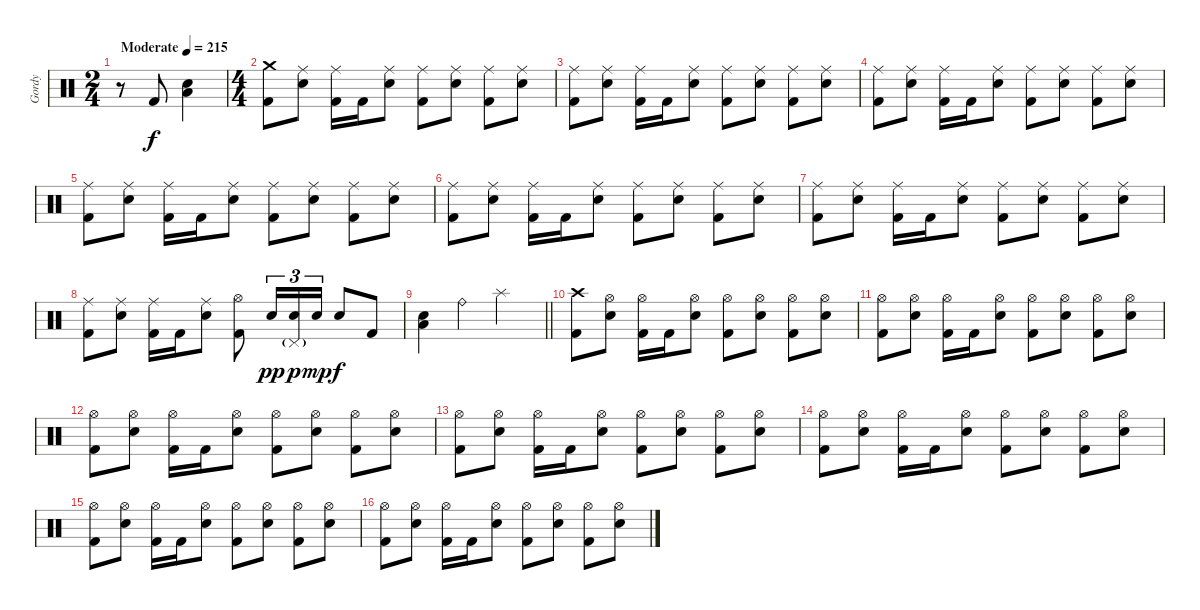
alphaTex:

\track ("Gordy" "Gordy") {instrument percussion}
\staff {score}
\articulation defaults
\ts (2 4)
\tempo (215 "Moderate")
\clef neutral
\ks c
r.8{dy f} "Kick (hit) 2".8 ("Electric Snare (hit)" "Low Floor Tom (hit)").4 |
\ts (4 4)
("Crash medium (hit)" "Kick (hit) 2").8 ("Ride (middle)" "Electric Snare (hit)").8 ("Ride (middle)" "Kick (hit) 2").16 "Kick (hit) 2".16 ("Ride (middle)" "Electric Snare (hit)").8 ("Ride (middle)" "Kick (hit) 2").8 ("Ride (middle)" "Electric Snare (hit)").8 ("Ride (middle)" "Kick (hit) 2").8 ("Ride (middle)" "Electric Snare (hit)").8 |
("Ride (middle)" "Kick (hit) 2").8 ("Ride (middle)" "Electric Snare (hit)").8 ("Ride (middle)" "Kick (hit) 2").16 "Kick (hit) 2".16 ("Ride (middle)" "Electric Snare (hit)").8 ("Ride (middle)" "Kick (hit) 2").8 ("Ride (middle)" "Electric Snare (hit)").8 ("Ride (middle)" "Kick (hit) 2").8 ("Ride (middle)" "Electric Snare (hit)").8 |
("Ride (middle)" "Kick (hit) 2").8 ("Ride (middle)" "Electric Snare (hit)").8 ("Ride (middle)" "Kick (hit) 2").16 "Kick (hit) 2".16 ("Ride (middle)" "Electric Snare (hit)").8 ("Ride (middle)" "Kick (hit) 2").8 ("Ride (middle)" "Electric Snare (hit)").8 ("Ride (middle)" "Kick (hit) 2").8 ("Ride (middle)" "Electric Snare (hit)").8 |
("Ride (middle)" "Kick (hit) 2").8 ("Ride (middle)" "Electric Snare (hit)").8 ("Ride (middle)" "Kick (hit) 2").16 "Kick (hit) 2".16 ("Ride (middle)" "Electric Snare (hit)").8 ("Ride (middle)" "Kick (hit) 2").8 ("Ride (middle)" "Electric Snare (hit)").8 ("Ride (middle)" "Kick (hit) 2").8 ("Ride (middle)" "Electric Snare (hit)").8 |
("Ride (middle)" "Kick (hit) 2").8 ("Ride (middle)" "Electric Snare (hit)").8 ("Ride (middle)" "Kick (hit) 2").16 "Kick (hit) 2".16 ("Ride (middle)" "Electric Snare (hit)").8 ("Ride (middle)" "Kick (hit) 2").8 ("Ride (middle)" "Electric Snare (hit)").8 ("Ride (middle)" "Kick (hit) 2").8 ("Ride (middle)" "Electric Snare (hit)").8 |
("Ride (middle)" "Kick (hit) 2").8 ("Ride (middle)" "Electric Snare (hit)").8 ("Ride (middle)" "Kick (hit) 2").16 "Kick (hit) 2".16 ("Ride (middle)" "Electric Snare (hit)").8 ("Ride (middle)" "Kick (hit) 2").8 ("Ride (middle)" "Electric Snare (hit)").8 ("Ride (middle)" "Kick (hit) 2").8 ("Ride (middle)" "Electric Snare (hit)").8 |
("Ride (middle)" "Kick (hit) 2").8 ("Ride (middle)" "Electric Snare (hit)").8 ("Ride (middle)" "Kick (hit) 2").16 "Kick (hit) 2".16 ("Ride (middle)" "Electric Snare (hit)").8 ("Hi-Hat (open)" "Kick (hit) 2").8 "Electric Snare (hit)".16{tu (3 2) dy pp} ("Pedal Hi-Hat (hit)"{g} "Electric Snare (hit)").16{tu (3 2) dy p} "Electric Snare (hit)".16{tu (3 2) dy mp} "Electric Snare (hit)".8{dy f} "Kick (hit) 2".8 |
\barLineRight lightlight
("Electric Snare (hit)" "Low Floor Tom (hit)").4 "Ride (bell)".4 "Splash (hit)".2 |
\section ("" "")
("Crash high (hit)" "Kick (hit) 2").8 ("Hi-Hat (open)" "Electric Snare (hit)").8 ("Hi-Hat (open)" "Kick (hit) 2").16 "Kick (hit) 2".16 ("Hi-Hat (open)" "Electric Snare (hit)").8 ("Hi-Hat (open)" "Kick (hit) 2").8 ("Hi-Hat (open)" "Electric Snare (hit)").8 ("Hi-Hat (open)" "Kick (hit) 2").8 ("Hi-Hat (open)" "Electric Snare (hit)").8 |
("Hi-Hat (open)" "Kick (hit) 2").8 ("Hi-Hat (open)" "Electric Snare (hit)").8 ("Hi-Hat (open)" "Kick (hit) 2").16 "Kick (hit) 2".16 ("Hi-Hat (open)" "Electric Snare (hit)").8 ("Hi-Hat (open)" "Kick (hit) 2").8 ("Hi-Hat (open)" "Electric Snare (hit)").8 ("Hi-Hat (open)" "Kick (hit) 2").8 ("Hi-Hat (open)" "Electric Snare (hit)").8 |
("Hi-Hat (open)" "Kick (hit) 2").8 ("Hi-Hat (open)" "Electric Snare (hit)").8 ("Hi-Hat (open)" "Kick (hit) 2").16 "Kick (hit) 2".16 ("Hi-Hat (open)" "Electric Snare (hit)").8 ("Hi-Hat (open)" "Kick (hit) 2").8 ("Hi-Hat (open)" "Electric Snare (hit)").8 ("Hi-Hat (open)" "Kick (hit) 2").8 ("Hi-Hat (open)" "Electric Snare (hit)").8 |
("Hi-Hat (open)" "Kick (hit) 2").8 ("Hi-Hat (open)" "Electric Snare (hit)").8 ("Hi-Hat (open)" "Kick (hit) 2").16 "Kick (hit) 2".16 ("Hi-Hat (open)" "Electric Snare (hit)").8 ("Hi-Hat (open)" "Kick (hit) 2").8 ("Hi-Hat (open)" "Electric Snare (hit)").8 ("Hi-Hat (open)" "Kick (hit) 2").8 ("Hi-Hat (open)" "Electric Snare (hit)").8 |
("Hi-Hat (open)" "Kick (hit) 2").8 ("Hi-Hat (open)" "Electric Snare (hit)").8 ("Hi-Hat (open)" "Kick (hit) 2").16 "Kick (hit) 2".16 ("Hi-Hat (open)" "Electric Snare (hit)").8 ("Hi-Hat (open)" "Kick (hit) 2").8 ("Hi-Hat (open)" "Electric Snare (hit)").8 ("Hi-Hat (open)" "Kick (hit) 2").8 ("Hi-Hat (open)" "Electric Snare (hit)").8 |
("Hi-Hat (open)" "Kick (hit) 2").8 ("Hi-Hat (open)" "Electric Snare (hit)").8 ("Hi-Hat (open)" "Kick (hit) 2").16 "Kick (hit) 2".16 ("Hi-Hat (open)" "Electric Snare (hit)").8 ("Hi-Hat (open)" "Kick (hit) 2").8 ("Hi-Hat (open)" "Electric Snare (hit)").8 ("Hi-Hat (open)" "Kick (hit) 2").8 ("Hi-Hat (open)" "Electric Snare (hit)").8 |
("Hi-Hat (open)" "Kick (hit) 2").8 ("Hi-Hat (open)" "Electric Snare (hit)").8 ("Hi-Hat (open)" "Kick (hit) 2").16 "Kick (hit) 2".16 ("Hi-Hat (open)" "Electric Snare (hit)").8 ("Hi-Hat (open)" "Kick (hit) 2").8 ("Hi-Hat (open)" "Electric Snare (hit)").8 ("Hi-Hat (open)" "Kick (hit) 2").8 ("Hi-Hat (open)" "Electric Snare (hit)").8
